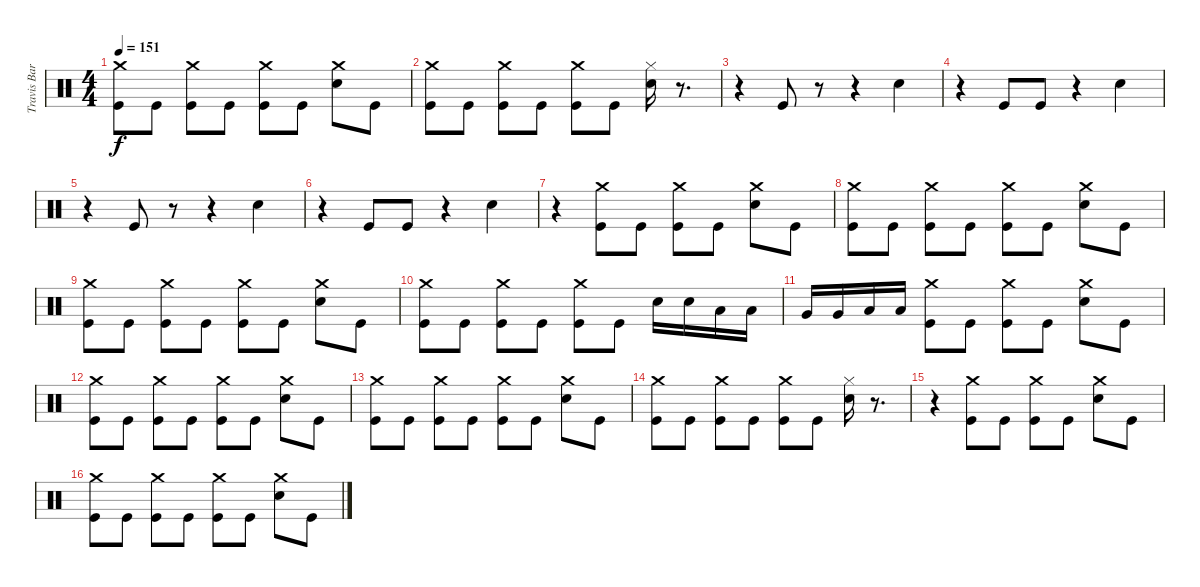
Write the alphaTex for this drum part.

\track ("Travis Barker (Drums)" "Travis Bar") {instrument percussion}
\staff {score}
\articulation defaults
\ts (4 4)
\tempo 151
\clef neutral
\ks c
("Kick (hit)" "Crash medium (hit)").8{dy f} "Kick (hit)".8 ("Kick (hit)" "Crash medium (hit)").8 "Kick (hit)".8 ("Kick (hit)" "Crash medium (hit)").8 "Kick (hit)".8 ("Electric Snare (hit)" "Crash medium (hit)").8 "Kick (hit)".8 |
("Kick (hit)" "Crash medium (hit)").8 "Kick (hit)".8 ("Kick (hit)" "Crash medium (hit)").8 "Kick (hit)".8 ("Kick (hit)" "Crash medium (hit)").8 "Kick (hit)".8 ("Electric Snare (hit)" "Hi-Hat (closed)").16 r.8{d} |
r.4 "Kick (hit)".8 r.8 r.4 "Snare (hit) 2".4 |
r.4 "Kick (hit)".8 "Kick (hit)".8 r.4 "Snare (hit) 2".4 |
r.4 "Kick (hit)".8 r.8 r.4 "Snare (hit) 2".4 |
r.4 "Kick (hit)".8 "Kick (hit)".8 r.4 "Snare (hit) 2".4 |
r.4 ("Kick (hit)" "Crash medium (hit)").8{volume 16} "Kick (hit)".8 ("Kick (hit)" "Crash medium (hit)").8 "Kick (hit)".8 ("Electric Snare (hit)" "Crash medium (hit)").8 "Kick (hit)".8 |
("Kick (hit)" "Crash medium (hit)").8 "Kick (hit)".8 ("Kick (hit)" "Crash medium (hit)").8 "Kick (hit)".8 ("Kick (hit)" "Crash medium (hit)").8 "Kick (hit)".8 ("Electric Snare (hit)" "Crash medium (hit)").8 "Kick (hit)".8 |
("Kick (hit)" "Crash medium (hit)").8 "Kick (hit)".8 ("Kick (hit)" "Crash medium (hit)").8 "Kick (hit)".8 ("Kick (hit)" "Crash medium (hit)").8 "Kick (hit)".8 ("Electric Snare (hit)" "Crash medium (hit)").8 "Kick (hit)".8 |
("Kick (hit)" "Crash medium (hit)").8 "Kick (hit)".8 ("Kick (hit)" "Crash medium (hit)").8 "Kick (hit)".8 ("Kick (hit)" "Crash medium (hit)").8 "Kick (hit)".8 "Electric Snare (hit)".16 "Electric Snare (hit)".16 "Low Tom (hit)".16 "Low Tom (hit)".16 |
"Very Low Tom (hit)".16 "Very Low Tom (hit)".16 "Low Floor Tom (hit)".16 "Low Floor Tom (hit)".16 ("Kick (hit)" "Crash medium (hit)").8 "Kick (hit)".8 ("Kick (hit)" "Crash medium (hit)").8 "Kick (hit)".8 ("Electric Snare (hit)" "Crash medium (hit)").8 "Kick (hit)".8 |
("Kick (hit)" "Crash medium (hit)").8 "Kick (hit)".8 ("Kick (hit)" "Crash medium (hit)").8 "Kick (hit)".8 ("Kick (hit)" "Crash medium (hit)").8 "Kick (hit)".8 ("Electric Snare (hit)" "Crash medium (hit)").8 "Kick (hit)".8 |
("Kick (hit)" "Crash medium (hit)").8 "Kick (hit)".8 ("Kick (hit)" "Crash medium (hit)").8 "Kick (hit)".8 ("Kick (hit)" "Crash medium (hit)").8 "Kick (hit)".8 ("Electric Snare (hit)" "Crash medium (hit)").8 "Kick (hit)".8 |
("Kick (hit)" "Crash medium (hit)").8 "Kick (hit)".8 ("Kick (hit)" "Crash medium (hit)").8 "Kick (hit)".8 ("Kick (hit)" "Crash medium (hit)").8 "Kick (hit)".8 ("Electric Snare (hit)" "Hi-Hat (closed)").16 r.8{d} |
r.4 ("Kick (hit)" "Crash medium (hit)").8 "Kick (hit)".8 ("Kick (hit)" "Crash medium (hit)").8 "Kick (hit)".8 ("Electric Snare (hit)" "Crash medium (hit)").8 "Kick (hit)".8 |
("Kick (hit)" "Crash medium (hit)").8 "Kick (hit)".8 ("Kick (hit)" "Crash medium (hit)").8 "Kick (hit)".8 ("Kick (hit)" "Crash medium (hit)").8 "Kick (hit)".8 ("Electric Snare (hit)" "Crash medium (hit)").8 "Kick (hit)".8
